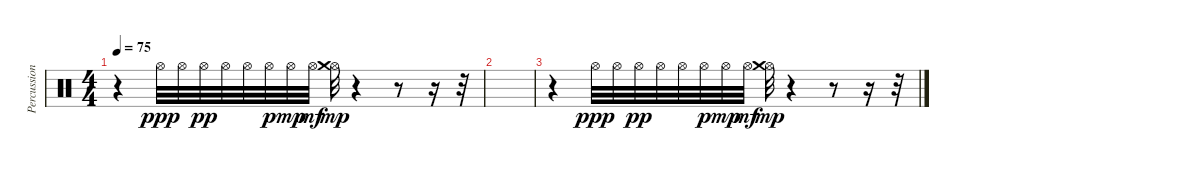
\track ("Percussion" "Percussion") {instrument percussion}
\staff {score}
\articulation defaults
\ts (4 4)
\tempo 75
\clef neutral
\ks c
r.4{dy f} "Hi-Hat (open)".32{dy ppp} "Hi-Hat (open)".32 "Hi-Hat (open)".32{dy pp} "Hi-Hat (open)".32 "Hi-Hat (open)".32 "Hi-Hat (open)".32{dy p} "Hi-Hat (open)".32{dy mp} "Hi-Hat (open)".32{dy mf} ("Hi-Hat (open)" "Crash medium (hit)").32{dy mp} r.4 r.8 r.16 r.32 |
|
r.4 "Hi-Hat (open)".32{dy ppp} "Hi-Hat (open)".32 "Hi-Hat (open)".32{dy pp} "Hi-Hat (open)".32 "Hi-Hat (open)".32 "Hi-Hat (open)".32{dy p} "Hi-Hat (open)".32{dy mp} "Hi-Hat (open)".32{dy mf} ("Hi-Hat (open)" "Crash medium (hit)").32{dy mp} r.4 r.8 r.16 r.32
